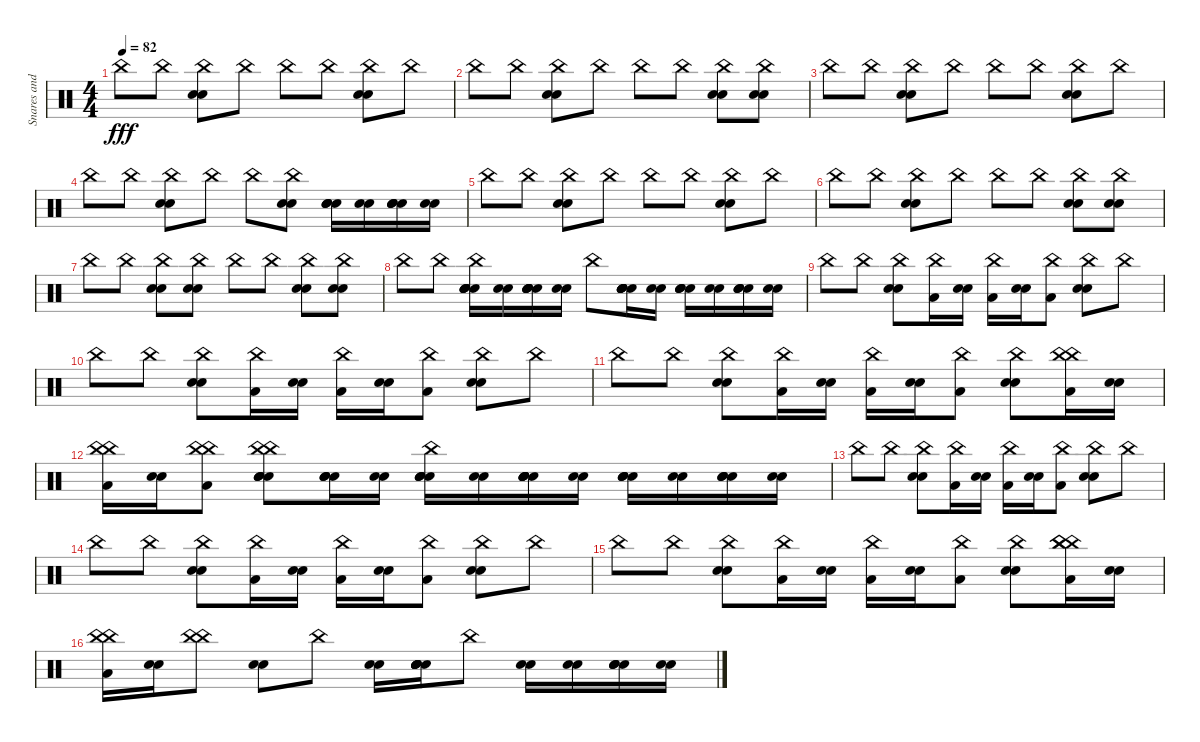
\track ("Snares and Cymbals" "Snares and") {instrument percussion}
\staff {score}
\articulation defaults
\ts (4 4)
\tempo 82
\clef neutral
\ks c "China (hit)".8{dy fff} "China (hit)".8
("China (hit)" "Snare (hit) 2" "Electric Snare (hit)").8 "China (hit)".8 "China (hit)".8 "China (hit)".8 ("China (hit)" "Snare (hit) 2" "Electric Snare (hit)").8 "China (hit)".8 |
"China (hit)".8 "China (hit)".8 ("China (hit)" "Snare (hit) 2" "Electric Snare (hit)").8 "China (hit)".8 "China (hit)".8 "China (hit)".8 ("China (hit)" "Snare (hit) 2" "Electric Snare (hit)").8 ("Snare (hit) 2" "Electric Snare (hit)" "China (hit)").8 |
"China (hit)".8 "China (hit)".8 ("China (hit)" "Snare (hit) 2" "Electric Snare (hit)").8 "China (hit)".8 "China (hit)".8 "China (hit)".8 ("China (hit)" "Snare (hit) 2" "Electric Snare (hit)").8 "China (hit)".8 |
"China (hit)".8 "China (hit)".8 ("China (hit)" "Snare (hit) 2" "Electric Snare (hit)").8 "China (hit)".8 "China (hit)".8 ("Snare (hit) 2" "Electric Snare (hit)" "China (hit)").8 ("Snare (hit) 2" "Electric Snare (hit)" "Electric Snare (hit)" "Snare (hit) 2").16 ("Electric Snare (hit)" "Snare (hit) 2").16 ("Snare (hit) 2" "Electric Snare (hit)" "Electric Snare (hit)" "Snare (hit) 2").16 ("Electric Snare (hit)" "Snare (hit) 2").16 |
"China (hit)".8 "China (hit)".8 ("China (hit)" "Snare (hit) 2" "Electric Snare (hit)").8 "China (hit)".8 "China (hit)".8 "China (hit)".8 ("China (hit)" "Snare (hit) 2" "Electric Snare (hit)").8 "China (hit)".8 |
"China (hit)".8 "China (hit)".8 ("China (hit)" "Snare (hit) 2" "Electric Snare (hit)").8 "China (hit)".8 "China (hit)".8 "China (hit)".8 ("China (hit)" "Snare (hit) 2" "Electric Snare (hit)").8 ("Snare (hit) 2" "Electric Snare (hit)" "China (hit)").8 |
"China (hit)".8 "China (hit)".8 ("China (hit)" "Snare (hit) 2" "Electric Snare (hit)").8 ("Snare (hit) 2" "Electric Snare (hit)" "China (hit)").8 "China (hit)".8 "China (hit)".8 ("China (hit)" "Snare (hit) 2" "Electric Snare (hit)").8 ("Snare (hit) 2" "Electric Snare (hit)" "China (hit)").8 |
"China (hit)".8 "China (hit)".8 ("China (hit)" "Snare (hit) 2" "Electric Snare (hit)" "Snare (hit) 2" "Electric Snare (hit)" "Electric Snare (hit)").16 ("Electric Snare (hit)" "Snare (hit) 2").16 ("Snare (hit) 2" "Electric Snare (hit)" "Snare (hit) 2" "Electric Snare (hit)" "Electric Snare (hit)" "Snare (hit) 2").16 ("Electric Snare (hit)" "Snare (hit) 2").16 "China (hit)".8 ("Snare (hit) 2" "Electric Snare (hit)" "Snare (hit) 2" "Electric Snare (hit)" "Electric Snare (hit)" "Snare (hit) 2").16 ("Electric Snare (hit)" "Snare (hit) 2").16 ("Snare (hit) 2" "Electric Snare (hit)" "Electric Snare (hit)" "Snare (hit) 2").16 ("Electric Snare (hit)" "Snare (hit) 2").16 ("Snare (hit) 2" "Electric Snare (hit)" "Electric Snare (hit)" "Snare (hit) 2").16 ("Electric Snare (hit)" "Snare (hit) 2").16 |
"China (hit)".8 "China (hit)".8 ("China (hit)" "Snare (hit) 2" "Electric Snare (hit)").8 ("China (hit)" "Low Tom (hit)").16 ("Snare (hit) 2" "Electric Snare (hit)").16 ("China (hit)" "Low Tom (hit)").16 ("Snare (hit) 2" "Electric Snare (hit)").16 ("China (hit)" "Low Tom (hit)").8 ("China (hit)" "Snare (hit) 2" "Electric Snare (hit)").8 "China (hit)".8 |
"China (hit)".8 "China (hit)".8 ("China (hit)" "Snare (hit) 2" "Electric Snare (hit)").8 ("China (hit)" "Low Tom (hit)").16 ("Snare (hit) 2" "Electric Snare (hit)").16 ("China (hit)" "Low Tom (hit)").16 ("Snare (hit) 2" "Electric Snare (hit)").16 ("China (hit)" "Low Tom (hit)").8 ("China (hit)" "Snare (hit) 2" "Electric Snare (hit)").8 "China (hit)".8 |
"China (hit)".8 "China (hit)".8 ("China (hit)" "Snare (hit) 2" "Electric Snare (hit)").8 ("China (hit)" "Low Tom (hit)").16 ("Snare (hit) 2" "Electric Snare (hit)").16 ("China (hit)" "Low Tom (hit)").16 ("Snare (hit) 2" "Electric Snare (hit)").16 ("China (hit)" "Low Tom (hit)").8 ("China (hit)" "Snare (hit) 2" "Electric Snare (hit)").8 ("China (hit)" "China (hit)" "Low Tom (hit)").16 ("Snare (hit) 2" "Electric Snare (hit)").16 |
("China (hit)" "China (hit)" "Low Tom (hit)").16 ("Snare (hit) 2" "Electric Snare (hit)").16 ("China (hit)" "China (hit)" "Low Tom (hit)").8 ("China (hit)" "Snare (hit) 2" "Electric Snare (hit)" "China (hit)" "Snare (hit) 2" "Electric Snare (hit)").8 ("Snare (hit) 2" "Electric Snare (hit)" "Electric Snare (hit)" "Snare (hit) 2").16 ("Electric Snare (hit)" "Snare (hit) 2").16 ("China (hit)" "Snare (hit) 2" "Electric Snare (hit)" "Electric Snare (hit)" "Snare (hit) 2").16 ("Electric Snare (hit)" "Snare (hit) 2").16 ("Snare (hit) 2" "Electric Snare (hit)" "Snare (hit) 2" "Electric Snare (hit)" "Electric Snare (hit)" "Snare (hit) 2").16 ("Electric Snare (hit)" "Snare (hit) 2").16 ("Snare (hit) 2" "Electric Snare (hit)" "Electric Snare (hit)" "Snare (hit) 2").16 ("Electric Snare (hit)" "Snare (hit) 2").16 ("Snare (hit) 2" "Electric Snare (hit)" "Electric Snare (hit)" "Snare (hit) 2").16 ("Electric Snare (hit)" "Snare (hit) 2").16 |
"China (hit)".8 "China (hit)".8 ("China (hit)" "Snare (hit) 2" "Electric Snare (hit)").8 ("China (hit)" "Low Tom (hit)").16 ("Snare (hit) 2" "Electric Snare (hit)").16 ("China (hit)" "Low Tom (hit)").16 ("Snare (hit) 2" "Electric Snare (hit)").16 ("China (hit)" "Low Tom (hit)").8 ("China (hit)" "Snare (hit) 2" "Electric Snare (hit)").8 "China (hit)".8 |
"China (hit)".8 "China (hit)".8 ("China (hit)" "Snare (hit) 2" "Electric Snare (hit)").8 ("China (hit)" "Low Tom (hit)").16 ("Snare (hit) 2" "Electric Snare (hit)").16 ("China (hit)" "Low Tom (hit)").16 ("Snare (hit) 2" "Electric Snare (hit)").16 ("China (hit)" "Low Tom (hit)").8 ("China (hit)" "Snare (hit) 2" "Electric Snare (hit)").8 "China (hit)".8 |
"China (hit)".8 "China (hit)".8 ("China (hit)" "Snare (hit) 2" "Electric Snare (hit)").8 ("China (hit)" "Low Tom (hit)").16 ("Snare (hit) 2" "Electric Snare (hit)").16 ("China (hit)" "Low Tom (hit)").16 ("Snare (hit) 2" "Electric Snare (hit)").16 ("China (hit)" "Low Tom (hit)").8 ("China (hit)" "Snare (hit) 2" "Electric Snare (hit)").8 ("China (hit)" "China (hit)" "China (hit)" "Low Tom (hit)").16 ("Snare (hit) 2" "Electric Snare (hit)").16 |
("China (hit)" "China (hit)" "Low Tom (hit)").16 ("Snare (hit) 2" "Electric Snare (hit)").16 ("China (hit)" "China (hit)").8 ("Snare (hit) 2" "Electric Snare (hit)").8 "China (hit)".8 ("Electric Snare (hit)" "Snare (hit) 2").16 ("Snare (hit) 2" "Electric Snare (hit)" "Snare (hit) 2" "Electric Snare (hit)" "Electric Snare (hit)" "Snare (hit) 2").16 "China (hit)".8 ("Snare (hit) 2" "Electric Snare (hit)").16 ("Electric Snare (hit)" "Snare (hit) 2").16 ("Snare (hit) 2" "Electric Snare (hit)" "Electric Snare (hit)" "Snare (hit) 2").16 ("Electric Snare (hit)" "Snare (hit) 2").16
